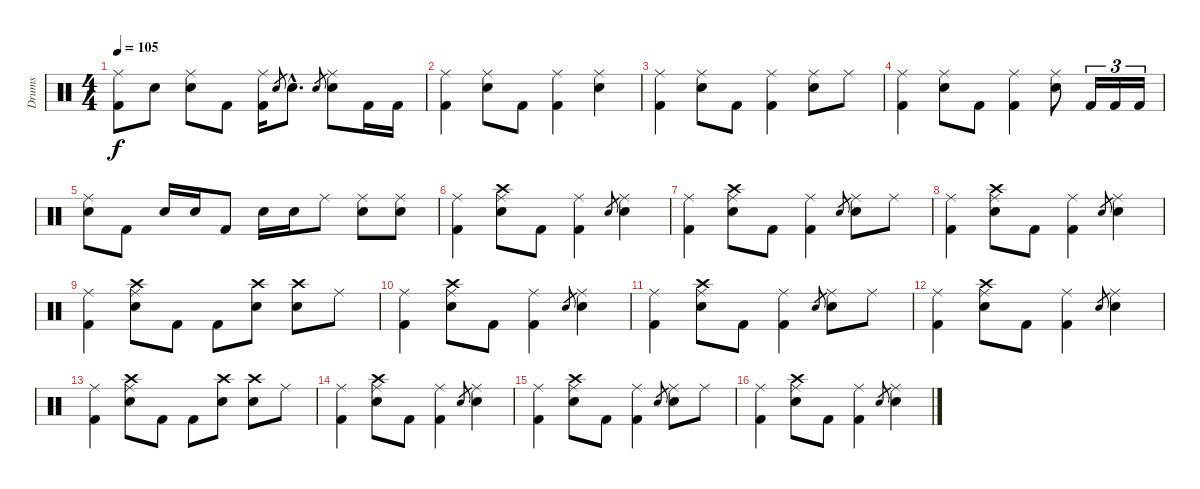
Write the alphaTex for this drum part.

\track ("Drums" "Drums") {instrument percussion}
\staff {score}
\articulation defaults
\ts (4 4)
\tempo 105
\clef neutral
\ks c
("Ride (middle)" "Kick (hit) 2").8{dy f} "Electric Snare (hit)".8 ("Ride (middle)" "Electric Snare (hit)").8 "Kick (hit) 2".8 ("Ride (middle)" "Kick (hit) 2").16 "Electric Snare (hit)".8{gr} "Electric Snare (hit)"{hac}.8{d} "Electric Snare (hit)".8{gr} ("Ride (middle)" "Electric Snare (hit)").8 "Kick (hit) 2".16 "Kick (hit) 2".16 |
("Ride (middle)" "Kick (hit) 2").4 ("Ride (middle)" "Electric Snare (hit)").8 "Kick (hit) 2".8 ("Ride (middle)" "Kick (hit) 2").4 ("Ride (middle)" "Electric Snare (hit)").4 |
("Ride (middle)" "Kick (hit) 2").4 ("Ride (middle)" "Electric Snare (hit)").8 "Kick (hit) 2".8 ("Ride (middle)" "Kick (hit) 2").4 ("Ride (middle)" "Electric Snare (hit)").8 "Ride (middle)".8 |
("Ride (middle)" "Kick (hit) 2").4 ("Ride (middle)" "Electric Snare (hit)").8 "Kick (hit) 2".8 ("Ride (middle)" "Kick (hit) 2").4 ("Ride (middle)" "Electric Snare (hit)").8 "Kick (hit) 2".16{tu (3 2)} "Kick (hit) 2".16{tu (3 2)} "Kick (hit) 2".16{tu (3 2)} |
("Ride (middle)" "Electric Snare (hit)").8 "Kick (hit) 2".8 "Electric Snare (hit)".16 "Electric Snare (hit)".16 "Kick (hit) 2".8 "Electric Snare (hit)".16 "Electric Snare (hit)".16 "Ride (middle)".8 ("Ride (middle)" "Electric Snare (hit)").8 ("Ride (middle)" "Electric Snare (hit)").8 |
("Ride (middle)" "Kick (hit) 2").4 ("Crash high (hit)" "Ride (middle)" "Electric Snare (hit)").8 "Kick (hit) 2".8 ("Ride (middle)" "Kick (hit) 2").4 "Electric Snare (hit)".8{gr} ("Ride (middle)" "Electric Snare (hit)").4 |
("Ride (middle)" "Kick (hit) 2").4 ("Crash high (hit)" "Ride (middle)" "Electric Snare (hit)").8 "Kick (hit) 2".8 ("Ride (middle)" "Kick (hit) 2").4 "Electric Snare (hit)".8{gr} ("Ride (middle)" "Electric Snare (hit)").8 "Ride (middle)".8 |
("Ride (middle)" "Kick (hit) 2").4 ("Crash high (hit)" "Ride (middle)" "Electric Snare (hit)").8 "Kick (hit) 2".8 ("Ride (middle)" "Kick (hit) 2").4 "Electric Snare (hit)".8{gr} ("Ride (middle)" "Electric Snare (hit)").4 |
("Ride (middle)" "Kick (hit) 2").4 ("Crash high (hit)" "Ride (middle)" "Electric Snare (hit)").8 "Kick (hit) 2".8 "Kick (hit) 2".8 ("Crash high (hit)" "Electric Snare (hit)").8 ("Crash high (hit)" "Electric Snare (hit)").8 "Ride (middle)".8 |
("Ride (middle)" "Kick (hit) 2").4 ("Crash high (hit)" "Ride (middle)" "Electric Snare (hit)").8 "Kick (hit) 2".8 ("Ride (middle)" "Kick (hit) 2").4 "Electric Snare (hit)".8{gr} ("Ride (middle)" "Electric Snare (hit)").4 |
("Ride (middle)" "Kick (hit) 2").4 ("Crash high (hit)" "Ride (middle)" "Electric Snare (hit)").8 "Kick (hit) 2".8 ("Ride (middle)" "Kick (hit) 2").4 "Electric Snare (hit)".8{gr} ("Ride (middle)" "Electric Snare (hit)").8 "Ride (middle)".8 |
("Ride (middle)" "Kick (hit) 2").4 ("Crash high (hit)" "Ride (middle)" "Electric Snare (hit)").8 "Kick (hit) 2".8 ("Ride (middle)" "Kick (hit) 2").4 "Electric Snare (hit)".8{gr} ("Ride (middle)" "Electric Snare (hit)").4 |
("Ride (middle)" "Kick (hit) 2").4 ("Crash high (hit)" "Ride (middle)" "Electric Snare (hit)").8 "Kick (hit) 2".8 "Kick (hit) 2".8 ("Crash high (hit)" "Electric Snare (hit)").8 ("Crash high (hit)" "Electric Snare (hit)").8 "Ride (middle)".8 |
("Ride (middle)" "Kick (hit) 2").4 ("Crash high (hit)" "Ride (middle)" "Electric Snare (hit)").8 "Kick (hit) 2".8 ("Ride (middle)" "Kick (hit) 2").4 "Electric Snare (hit)".8{gr} ("Ride (middle)" "Electric Snare (hit)").4 |
("Ride (middle)" "Kick (hit) 2").4 ("Crash high (hit)" "Ride (middle)" "Electric Snare (hit)").8 "Kick (hit) 2".8 ("Ride (middle)" "Kick (hit) 2").4 "Electric Snare (hit)".8{gr} ("Ride (middle)" "Electric Snare (hit)").8 "Ride (middle)".8 |
("Ride (middle)" "Kick (hit) 2").4 ("Crash high (hit)" "Ride (middle)" "Electric Snare (hit)").8 "Kick (hit) 2".8 ("Ride (middle)" "Kick (hit) 2").4 "Electric Snare (hit)".8{gr} ("Ride (middle)" "Electric Snare (hit)").4
